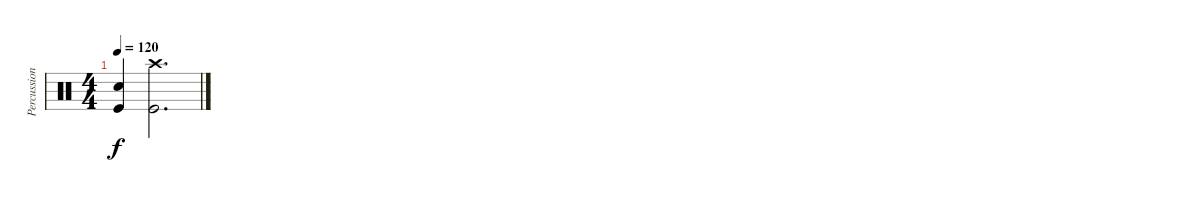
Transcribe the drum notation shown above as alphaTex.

\track ("Percussion" "Percussion") {instrument percussion}
\staff {score}
\articulation defaults
\ts (4 4)
\tempo 120
\clef neutral
\ks c
("Kick (hit)" "Snare (hit) 2").4{dy f} ("Kick (hit)" "Crash high (hit)").2{d}
